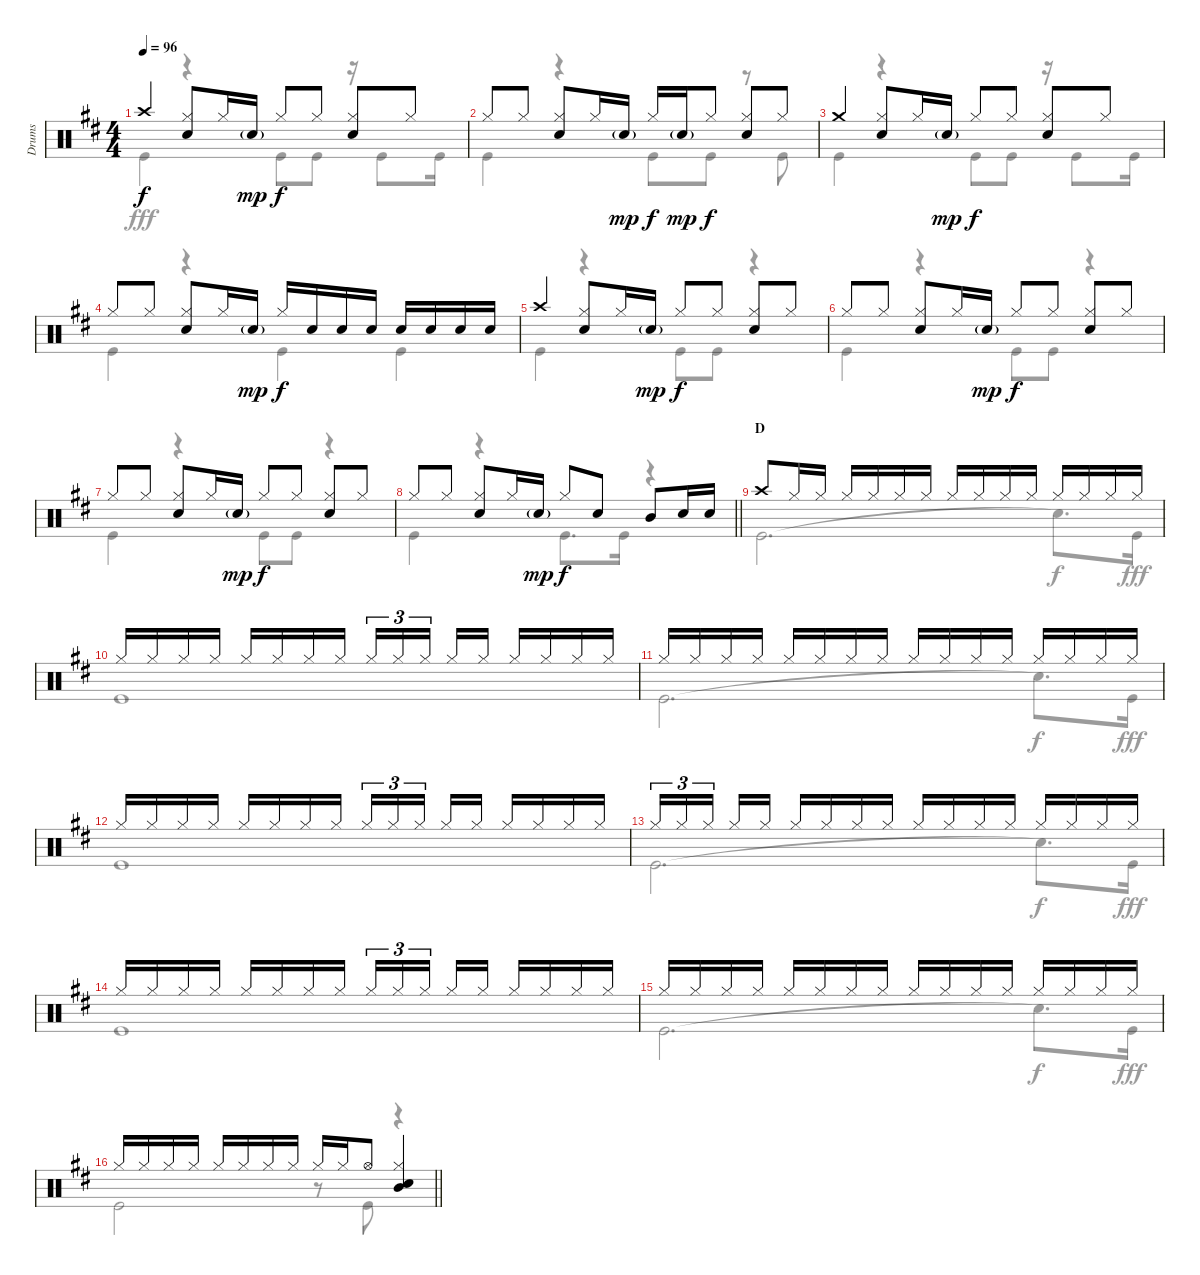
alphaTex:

\track ("Drums" "Drums") {instrument percussion}
\staff {score}
\articulation defaults
\voice
\ts (4 4)
\tempo 96
\clef neutral
\ks d "Crash high (hit)".4{dy f}
("Hi-Hat (closed)" "Snare (hit) 2").8 "Hi-Hat (closed)".16 "Snare (hit) 2"{g}.16{dy mp} "Hi-Hat (closed)".8{dy f} "Hi-Hat (closed)".8 ("Hi-Hat (closed)" "Snare (hit) 2").8 "Hi-Hat (closed)".8 |
"Hi-Hat (closed)".8 "Hi-Hat (closed)".8 ("Hi-Hat (closed)" "Snare (hit) 2").8 "Hi-Hat (closed)".16 "Snare (hit) 2"{g}.16{dy mp} "Hi-Hat (closed)".16{dy f} "Snare (hit) 2"{g}.16{dy mp} "Hi-Hat (closed)".8{dy f} ("Hi-Hat (closed)" "Snare (hit) 2").8 "Hi-Hat (closed)".8 |
"Crash medium (hit)".4 ("Hi-Hat (closed)" "Snare (hit) 2").8 "Hi-Hat (closed)".16 "Snare (hit) 2"{g}.16{dy mp} "Hi-Hat (closed)".8{dy f} "Hi-Hat (closed)".8 ("Hi-Hat (closed)" "Snare (hit) 2").8 "Hi-Hat (closed)".8 |
"Hi-Hat (closed)".8 "Hi-Hat (closed)".8 ("Hi-Hat (closed)" "Snare (hit) 2").8 "Hi-Hat (closed)".16 "Snare (hit) 2"{g}.16{dy mp} "Hi-Hat (closed)".16{dy f} "Snare (hit) 2".16 "Snare (hit) 2".16 "Snare (hit) 2".16 "Snare (hit) 2".16 "Snare (hit) 2".16 "Snare (hit) 2".16 "Snare (hit) 2".16 |
"Crash high (hit)".4 ("Hi-Hat (closed)" "Snare (hit) 2").8 "Hi-Hat (closed)".16 "Snare (hit) 2"{g}.16{dy mp} "Hi-Hat (closed)".8{dy f} "Hi-Hat (closed)".8 ("Hi-Hat (closed)" "Snare (hit) 2").8 "Hi-Hat (closed)".8 |
"Hi-Hat (closed)".8 "Hi-Hat (closed)".8 ("Hi-Hat (closed)" "Snare (hit) 2").8 "Hi-Hat (closed)".16 "Snare (hit) 2"{g}.16{dy mp} "Hi-Hat (closed)".8{dy f} "Hi-Hat (closed)".8 ("Hi-Hat (closed)" "Snare (hit) 2").8 "Hi-Hat (closed)".8 |
"Hi-Hat (closed)".8 "Hi-Hat (closed)".8 ("Hi-Hat (closed)" "Snare (hit) 2").8 "Hi-Hat (closed)".16 "Snare (hit) 2"{g}.16{dy mp} "Hi-Hat (closed)".8{dy f} "Hi-Hat (closed)".8 ("Hi-Hat (closed)" "Snare (hit) 2").8 "Hi-Hat (closed)".8 |
\barLineRight lightlight "Hi-Hat (closed)".8 "Hi-Hat (closed)".8
("Hi-Hat (closed)" "Snare (hit) 2").8 "Hi-Hat (closed)".16 "Snare (hit) 2"{g}.16{dy mp} "Hi-Hat (closed)".8{dy f} "Snare (hit) 2".8 "Mid Tom (hit)".8 "Snare (hit) 2".16 "Snare (hit) 2".16 |
\section ("" "D")
"Crash high (hit)".8 "Hi-Hat (closed)".16 "Hi-Hat (closed)".16 "Hi-Hat (closed)".16 "Hi-Hat (closed)".16 "Hi-Hat (closed)".16 "Hi-Hat (closed)".16 "Hi-Hat (closed)".16 "Hi-Hat (closed)".16 "Hi-Hat (closed)".16 "Hi-Hat (closed)".16 "Hi-Hat (closed)".16 "Hi-Hat (closed)".16 "Hi-Hat (closed)".16 "Hi-Hat (closed)".16 |
"Hi-Hat (closed)".16 "Hi-Hat (closed)".16 "Hi-Hat (closed)".16 "Hi-Hat (closed)".16 "Hi-Hat (closed)".16 "Hi-Hat (closed)".16 "Hi-Hat (closed)".16 "Hi-Hat (closed)".16 "Hi-Hat (closed)".16{tu (3 2)} "Hi-Hat (closed)".16{tu (3 2)} "Hi-Hat (closed)".16{tu (3 2) beam splitsecondary} "Hi-Hat (closed)".16 "Hi-Hat (closed)".16 "Hi-Hat (closed)".16 "Hi-Hat (closed)".16 "Hi-Hat (closed)".16 "Hi-Hat (closed)".16 |
"Hi-Hat (closed)".16 "Hi-Hat (closed)".16 "Hi-Hat (closed)".16 "Hi-Hat (closed)".16 "Hi-Hat (closed)".16 "Hi-Hat (closed)".16 "Hi-Hat (closed)".16 "Hi-Hat (closed)".16 "Hi-Hat (closed)".16 "Hi-Hat (closed)".16 "Hi-Hat (closed)".16 "Hi-Hat (closed)".16 "Hi-Hat (closed)".16 "Hi-Hat (closed)".16 "Hi-Hat (closed)".16 "Hi-Hat (closed)".16 |
"Hi-Hat (closed)".16 "Hi-Hat (closed)".16 "Hi-Hat (closed)".16 "Hi-Hat (closed)".16 "Hi-Hat (closed)".16 "Hi-Hat (closed)".16 "Hi-Hat (closed)".16 "Hi-Hat (closed)".16 "Hi-Hat (closed)".16{tu (3 2)} "Hi-Hat (closed)".16{tu (3 2)} "Hi-Hat (closed)".16{tu (3 2) beam splitsecondary} "Hi-Hat (closed)".16 "Hi-Hat (closed)".16 "Hi-Hat (closed)".16 "Hi-Hat (closed)".16 "Hi-Hat (closed)".16 "Hi-Hat (closed)".16 |
"Hi-Hat (closed)".16{tu (3 2)} "Hi-Hat (closed)".16{tu (3 2)} "Hi-Hat (closed)".16{tu (3 2) beam splitsecondary} "Hi-Hat (closed)".16 "Hi-Hat (closed)".16 "Hi-Hat (closed)".16 "Hi-Hat (closed)".16 "Hi-Hat (closed)".16 "Hi-Hat (closed)".16 "Hi-Hat (closed)".16 "Hi-Hat (closed)".16 "Hi-Hat (closed)".16 "Hi-Hat (closed)".16 "Hi-Hat (closed)".16 "Hi-Hat (closed)".16 "Hi-Hat (closed)".16 "Hi-Hat (closed)".16 |
"Hi-Hat (closed)".16 "Hi-Hat (closed)".16 "Hi-Hat (closed)".16 "Hi-Hat (closed)".16 "Hi-Hat (closed)".16 "Hi-Hat (closed)".16 "Hi-Hat (closed)".16 "Hi-Hat (closed)".16 "Hi-Hat (closed)".16{tu (3 2)} "Hi-Hat (closed)".16{tu (3 2)} "Hi-Hat (closed)".16{tu (3 2) beam splitsecondary} "Hi-Hat (closed)".16 "Hi-Hat (closed)".16 "Hi-Hat (closed)".16 "Hi-Hat (closed)".16 "Hi-Hat (closed)".16 "Hi-Hat (closed)".16 |
"Hi-Hat (closed)".16 "Hi-Hat (closed)".16 "Hi-Hat (closed)".16 "Hi-Hat (closed)".16 "Hi-Hat (closed)".16 "Hi-Hat (closed)".16 "Hi-Hat (closed)".16 "Hi-Hat (closed)".16 "Hi-Hat (closed)".16 "Hi-Hat (closed)".16 "Hi-Hat (closed)".16 "Hi-Hat (closed)".16 "Hi-Hat (closed)".16 "Hi-Hat (closed)".16 "Hi-Hat (closed)".16 "Hi-Hat (closed)".16 |
\barLineRight lightlight "Hi-Hat (closed)".16 "Hi-Hat (closed)".16 "Hi-Hat (closed)".16 "Hi-Hat (closed)".16 "Hi-Hat (closed)".16 "Hi-Hat (closed)".16 "Hi-Hat (closed)".16 "Hi-Hat (closed)".16 "Hi-Hat (closed)".16 "Hi-Hat (closed)".16 "Hi-Hat (open)".8
("Hi-Hat (closed)" "Mid Tom (hit)" "Snare (hit) 2").4
\voice
\clef neutral
\ottava regular
\simile none
\ks d "Kick (hit)".4{dy fff}
r.4 "Kick (hit)".8 "Kick (hit)".8 r.16 "Kick (hit)".8 "Kick (hit)".16 |
"Kick (hit)".4 r.4 "Kick (hit)".8 "Kick (hit)".8 r.8 "Kick (hit)".8 |
"Kick (hit)".4 r.4 "Kick (hit)".8 "Kick (hit)".8 r.16 "Kick (hit)".8 "Kick (hit)".16 |
"Kick (hit)".4 r.4 "Kick (hit)".4 "Kick (hit)".4 |
"Kick (hit)".4 r.4 "Kick (hit)".8 "Kick (hit)".8 r.4 |
"Kick (hit)".4 r.4 "Kick (hit)".8 "Kick (hit)".8 r.4 |
"Kick (hit)".4 r.4 "Kick (hit)".8 "Kick (hit)".8 r.4 |
\barLineRight lightlight "Kick (hit)".4
r.4 "Kick (hit)".8{d} "Kick (hit)".16 r.4 |
"Kick (hit)".2{d} "Snare (hit)"{t}.8{d dy f} "Kick (hit)".16{dy fff} |
"Kick (hit)".1 |
"Kick (hit)".2{d} "Snare (hit)"{t}.8{d dy f} "Kick (hit)".16{dy fff} |
"Kick (hit)".1 |
"Kick (hit)".2{d} "Snare (hit)"{t}.8{d dy f} "Kick (hit)".16{dy fff} |
"Kick (hit)".1 |
"Kick (hit)".2{d} "Snare (hit)"{t}.8{d dy f} "Kick (hit)".16{dy fff} |
\barLineRight lightlight "Kick (hit)".2
r.8 "Kick (hit)".8 r.4
